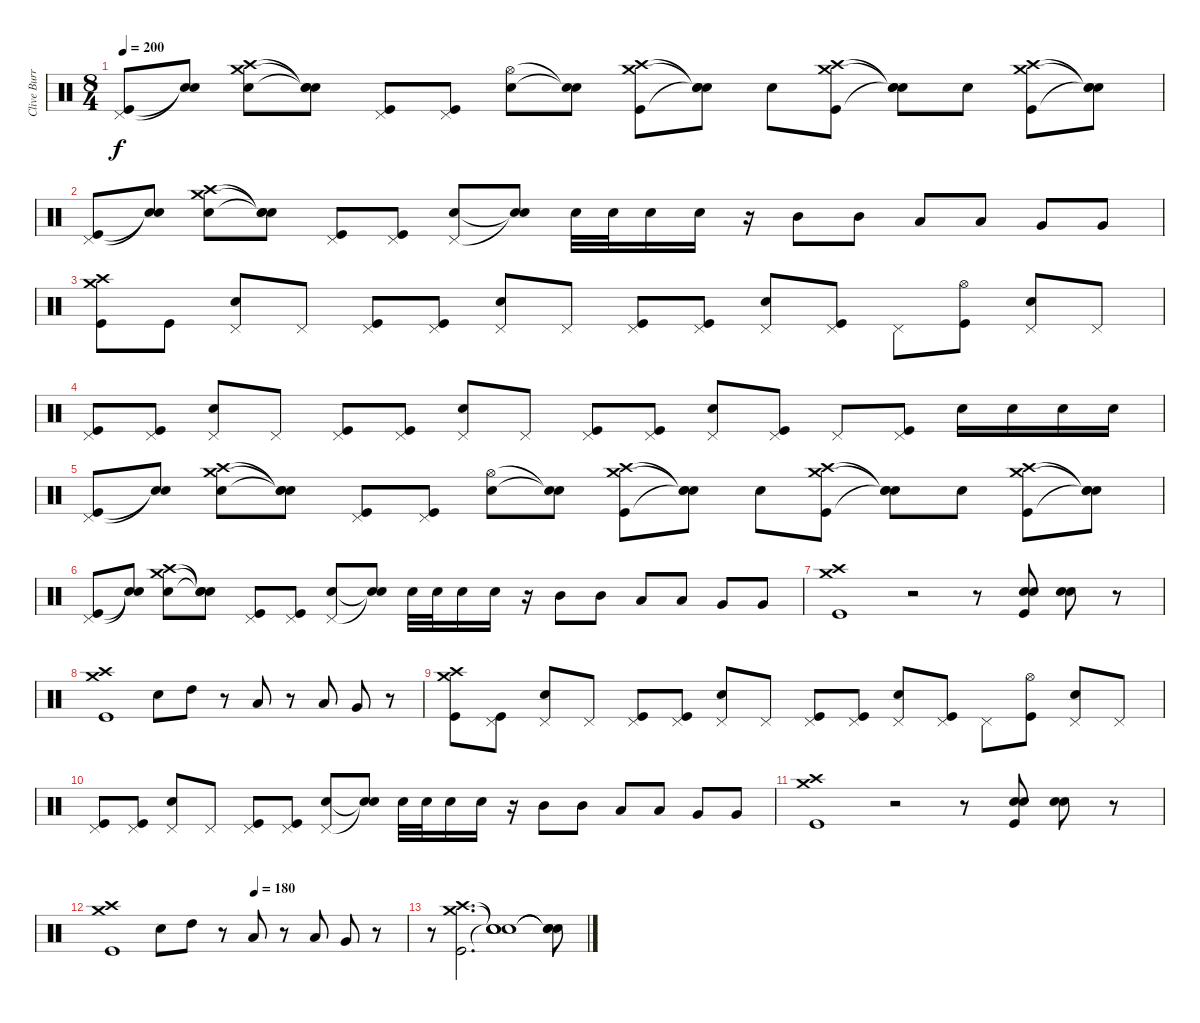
\track ("Clive Burr" "Clive Burr") {instrument percussion}
\staff {score}
\articulation defaults
\ts (8 4)
\tempo 200
\clef neutral
\ks c
("Pedal Hi-Hat (hit)" "Kick (hit)").8{dy f} ("Snare (hit)"{t} "Snare (hit)"{t}).8 ("Crash medium (hit)" "Crash high (hit)" "Snare (hit) 2").8 ("Snare (hit)"{t} "Snare (hit)"{t} "Snare (hit)"{t}).8 ("Pedal Hi-Hat (hit)" "Kick (hit)").8 ("Pedal Hi-Hat (hit)" "Kick (hit)").8 ("Hi-Hat (open)" "Snare (hit) 2").8 ("Snare (hit)"{t} "Snare (hit)"{t}).8 ("Crash medium (hit)" "Crash high (hit)" "Kick (hit)").8 ("Snare (hit)"{t} "Snare (hit)"{t} "Snare (hit)"{t}).8 "Snare (hit) 2".8 ("Crash medium (hit)" "Crash high (hit)" "Kick (hit)").8 ("Snare (hit)"{t} "Snare (hit)"{t} "Snare (hit)"{t}).8 "Snare (hit) 2".8 ("Crash medium (hit)" "Crash high (hit)" "Kick (hit)").8 ("Snare (hit)"{t} "Snare (hit)"{t} "Snare (hit)"{t}).8 |
("Pedal Hi-Hat (hit)" "Kick (hit)").8 ("Snare (hit)"{t} "Snare (hit)"{t}).8 ("Crash medium (hit)" "Crash high (hit)" "Snare (hit) 2").8 ("Snare (hit)"{t} "Snare (hit)"{t} "Snare (hit)"{t}).8 ("Pedal Hi-Hat (hit)" "Kick (hit)").8 ("Pedal Hi-Hat (hit)" "Kick (hit)").8 ("Pedal Hi-Hat (hit)" "Snare (hit) 2").8 ("Snare (hit)"{t} "Snare (hit)"{t}).8 "Snare (hit) 2".32 "Snare (hit) 2".32 "Snare (hit) 2".16 "Snare (hit) 2".16 r.16 "Mid Tom (hit)".8 "Mid Tom (hit)".8 "Low Tom (hit)".8 "Low Tom (hit)".8 "Very Low Tom (hit)".8 "Very Low Tom (hit)".8 |
("Crash medium (hit)" "Crash high (hit)" "Kick (hit)").8 "Kick (hit)".8 ("Pedal Hi-Hat (hit)" "Snare (hit) 2").8 "Pedal Hi-Hat (hit)".8 ("Pedal Hi-Hat (hit)" "Kick (hit)").8 ("Pedal Hi-Hat (hit)" "Kick (hit)").8 ("Pedal Hi-Hat (hit)" "Snare (hit) 2").8 "Pedal Hi-Hat (hit)".8 ("Pedal Hi-Hat (hit)" "Kick (hit)").8 ("Pedal Hi-Hat (hit)" "Kick (hit)").8 ("Pedal Hi-Hat (hit)" "Snare (hit) 2").8 ("Pedal Hi-Hat (hit)" "Kick (hit)").8 "Pedal Hi-Hat (hit)".8 ("Hi-Hat (open)" "Kick (hit)").8 ("Pedal Hi-Hat (hit)" "Snare (hit) 2").8 "Pedal Hi-Hat (hit)".8 |
("Pedal Hi-Hat (hit)" "Kick (hit)").8 ("Pedal Hi-Hat (hit)" "Kick (hit)").8 ("Pedal Hi-Hat (hit)" "Snare (hit) 2").8 "Pedal Hi-Hat (hit)".8 ("Pedal Hi-Hat (hit)" "Kick (hit)").8 ("Pedal Hi-Hat (hit)" "Kick (hit)").8 ("Pedal Hi-Hat (hit)" "Snare (hit) 2").8 "Pedal Hi-Hat (hit)".8 ("Pedal Hi-Hat (hit)" "Kick (hit)").8 ("Pedal Hi-Hat (hit)" "Kick (hit)").8 ("Pedal Hi-Hat (hit)" "Snare (hit) 2").8 ("Pedal Hi-Hat (hit)" "Kick (hit)").8 "Pedal Hi-Hat (hit)".8 ("Pedal Hi-Hat (hit)" "Kick (hit)").8 "Snare (hit) 2".16 "Snare (hit) 2".16 "Snare (hit) 2".16 "Snare (hit) 2".16 |
("Pedal Hi-Hat (hit)" "Kick (hit)").8 ("Snare (hit)"{t} "Snare (hit)"{t}).8 ("Crash medium (hit)" "Crash high (hit)" "Snare (hit) 2").8 ("Snare (hit)"{t} "Snare (hit)"{t} "Snare (hit)"{t}).8 ("Pedal Hi-Hat (hit)" "Kick (hit)").8 ("Pedal Hi-Hat (hit)" "Kick (hit)").8 ("Hi-Hat (open)" "Snare (hit) 2").8 ("Snare (hit)"{t} "Snare (hit)"{t}).8 ("Crash medium (hit)" "Crash high (hit)" "Kick (hit)").8 ("Snare (hit)"{t} "Snare (hit)"{t} "Snare (hit)"{t}).8 "Snare (hit) 2".8 ("Crash medium (hit)" "Crash high (hit)" "Kick (hit)").8 ("Snare (hit)"{t} "Snare (hit)"{t} "Snare (hit)"{t}).8 "Snare (hit) 2".8 ("Crash medium (hit)" "Crash high (hit)" "Kick (hit)").8 ("Snare (hit)"{t} "Snare (hit)"{t} "Snare (hit)"{t}).8 |
("Pedal Hi-Hat (hit)" "Kick (hit)").8 ("Snare (hit)"{t} "Snare (hit)"{t}).8 ("Crash medium (hit)" "Crash high (hit)" "Snare (hit) 2").8 ("Snare (hit)"{t} "Snare (hit)"{t} "Snare (hit)"{t}).8 ("Pedal Hi-Hat (hit)" "Kick (hit)").8 ("Pedal Hi-Hat (hit)" "Kick (hit)").8 ("Pedal Hi-Hat (hit)" "Snare (hit) 2").8 ("Snare (hit)"{t} "Snare (hit)"{t}).8 "Snare (hit) 2".32 "Snare (hit) 2".32 "Snare (hit) 2".16 "Snare (hit) 2".16 r.16 "Mid Tom (hit)".8 "Mid Tom (hit)".8 "Low Tom (hit)".8 "Low Tom (hit)".8 "Very Low Tom (hit)".8 "Very Low Tom (hit)".8 |
("Crash medium (hit)" "Crash high (hit)" "Kick (hit)").1 r.2 r.8 ("Snare (hit) 2" "Snare (hit) 2" "Kick (hit)").8 ("Snare (hit) 2" "Snare (hit) 2").8 r.8 |
("Crash medium (hit)" "Crash high (hit)" "Kick (hit)").1 "Snare (hit) 2".8 "High Tom (hit)".8 r.8 "Low Tom (hit)".8 r.8 "Low Tom (hit)".8 "Very Low Tom (hit)".8 r.8 |
("Crash medium (hit)" "Crash high (hit)" "Kick (hit)").8 ("Pedal Hi-Hat (hit)" "Kick (hit)").8 ("Pedal Hi-Hat (hit)" "Snare (hit) 2").8 "Pedal Hi-Hat (hit)".8 ("Pedal Hi-Hat (hit)" "Kick (hit)").8 ("Pedal Hi-Hat (hit)" "Kick (hit)").8 ("Pedal Hi-Hat (hit)" "Snare (hit) 2").8 "Pedal Hi-Hat (hit)".8 ("Pedal Hi-Hat (hit)" "Kick (hit)").8 ("Pedal Hi-Hat (hit)" "Kick (hit)").8 ("Pedal Hi-Hat (hit)" "Snare (hit) 2").8 ("Pedal Hi-Hat (hit)" "Kick (hit)").8 "Pedal Hi-Hat (hit)".8 ("Hi-Hat (open)" "Kick (hit)").8 ("Pedal Hi-Hat (hit)" "Snare (hit) 2").8 "Pedal Hi-Hat (hit)".8 |
("Pedal Hi-Hat (hit)" "Kick (hit)").8 ("Pedal Hi-Hat (hit)" "Kick (hit)").8 ("Pedal Hi-Hat (hit)" "Snare (hit) 2").8 "Pedal Hi-Hat (hit)".8 ("Pedal Hi-Hat (hit)" "Kick (hit)").8 ("Pedal Hi-Hat (hit)" "Kick (hit)").8 ("Pedal Hi-Hat (hit)" "Snare (hit) 2").8 ("Snare (hit)"{t} "Snare (hit)"{t}).8 "Snare (hit) 2".32 "Snare (hit) 2".32 "Snare (hit) 2".16 "Snare (hit) 2".16 r.16 "Mid Tom (hit)".8 "Mid Tom (hit)".8 "Low Tom (hit)".8 "Low Tom (hit)".8 "Very Low Tom (hit)".8 "Very Low Tom (hit)".8 |
("Crash medium (hit)" "Crash high (hit)" "Kick (hit)").1 r.2 r.8 ("Snare (hit) 2" "Snare (hit) 2" "Kick (hit)").8 ("Snare (hit) 2" "Snare (hit) 2").8 r.8 |
\tempo (180 0.5)
("Crash medium (hit)" "Crash high (hit)" "Kick (hit)").1 "Snare (hit) 2".8 "High Tom (hit)".8 r.8 "Low Tom (hit)".8 r.8 "Low Tom (hit)".8 "Very Low Tom (hit)".8 r.8 |
r.8 ("Crash medium (hit)" "Crash high (hit)" "Kick (hit)").2{d} ("Snare (hit)"{t} "Snare (hit)"{t} "Snare (hit)"{t}).1 ("Snare (hit)"{t} "Snare (hit)"{t} "Snare (hit)"{t}).8
